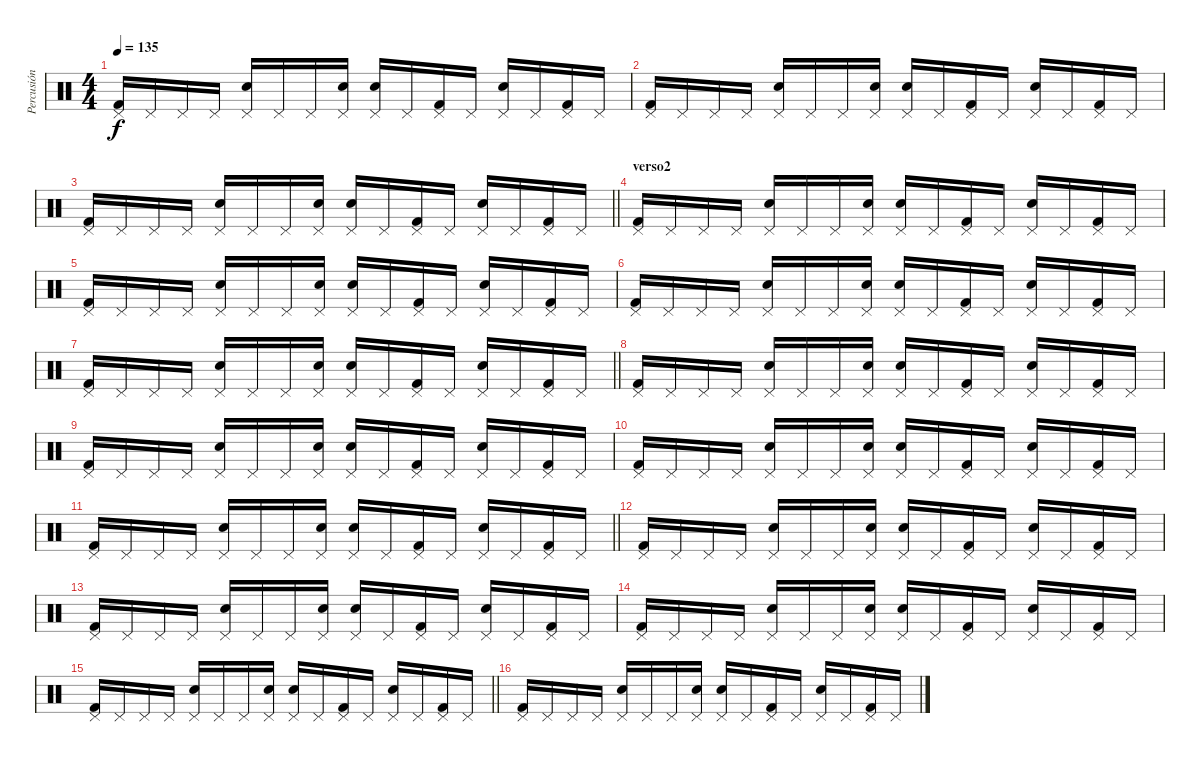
\track ("Percusión" "Percusión") {instrument percussion}
\staff {score}
\articulation defaults
\ts (4 4)
\tempo 135
\clef neutral
\ks c
("Pedal Hi-Hat (hit)" "Kick (hit) 2").16{dy f} "Pedal Hi-Hat (hit)".16 "Pedal Hi-Hat (hit)".16 "Pedal Hi-Hat (hit)".16 ("Pedal Hi-Hat (hit)" "Snare (hit) 2").16 "Pedal Hi-Hat (hit)".16 "Pedal Hi-Hat (hit)".16 ("Pedal Hi-Hat (hit)" "Snare (hit) 2").16 ("Pedal Hi-Hat (hit)" "Snare (hit) 2").16 "Pedal Hi-Hat (hit)".16 ("Pedal Hi-Hat (hit)" "Kick (hit) 2").16 "Pedal Hi-Hat (hit)".16 ("Pedal Hi-Hat (hit)" "Snare (hit) 2").16 "Pedal Hi-Hat (hit)".16 ("Pedal Hi-Hat (hit)" "Kick (hit) 2").16 "Pedal Hi-Hat (hit)".16 |
("Pedal Hi-Hat (hit)" "Kick (hit) 2").16 "Pedal Hi-Hat (hit)".16 "Pedal Hi-Hat (hit)".16 "Pedal Hi-Hat (hit)".16 ("Pedal Hi-Hat (hit)" "Snare (hit) 2").16 "Pedal Hi-Hat (hit)".16 "Pedal Hi-Hat (hit)".16 ("Pedal Hi-Hat (hit)" "Snare (hit) 2").16 ("Pedal Hi-Hat (hit)" "Snare (hit) 2").16 "Pedal Hi-Hat (hit)".16 ("Pedal Hi-Hat (hit)" "Kick (hit) 2").16 "Pedal Hi-Hat (hit)".16 ("Pedal Hi-Hat (hit)" "Snare (hit) 2").16 "Pedal Hi-Hat (hit)".16 ("Pedal Hi-Hat (hit)" "Kick (hit) 2").16 "Pedal Hi-Hat (hit)".16 |
\barLineRight lightlight
("Pedal Hi-Hat (hit)" "Kick (hit) 2").16 "Pedal Hi-Hat (hit)".16 "Pedal Hi-Hat (hit)".16 "Pedal Hi-Hat (hit)".16 ("Pedal Hi-Hat (hit)" "Snare (hit) 2").16 "Pedal Hi-Hat (hit)".16 "Pedal Hi-Hat (hit)".16 ("Pedal Hi-Hat (hit)" "Snare (hit) 2").16 ("Pedal Hi-Hat (hit)" "Snare (hit) 2").16 "Pedal Hi-Hat (hit)".16 ("Pedal Hi-Hat (hit)" "Kick (hit) 2").16 "Pedal Hi-Hat (hit)".16 ("Pedal Hi-Hat (hit)" "Snare (hit) 2").16 "Pedal Hi-Hat (hit)".16 ("Pedal Hi-Hat (hit)" "Kick (hit) 2").16 "Pedal Hi-Hat (hit)".16 |
\section ("" "verso2")
("Pedal Hi-Hat (hit)" "Kick (hit) 2").16 "Pedal Hi-Hat (hit)".16 "Pedal Hi-Hat (hit)".16 "Pedal Hi-Hat (hit)".16 ("Pedal Hi-Hat (hit)" "Snare (hit) 2").16 "Pedal Hi-Hat (hit)".16 "Pedal Hi-Hat (hit)".16 ("Pedal Hi-Hat (hit)" "Snare (hit) 2").16 ("Pedal Hi-Hat (hit)" "Snare (hit) 2").16 "Pedal Hi-Hat (hit)".16 ("Pedal Hi-Hat (hit)" "Kick (hit) 2").16 "Pedal Hi-Hat (hit)".16 ("Pedal Hi-Hat (hit)" "Snare (hit) 2").16 "Pedal Hi-Hat (hit)".16 ("Pedal Hi-Hat (hit)" "Kick (hit) 2").16 "Pedal Hi-Hat (hit)".16 |
("Pedal Hi-Hat (hit)" "Kick (hit) 2").16 "Pedal Hi-Hat (hit)".16 "Pedal Hi-Hat (hit)".16 "Pedal Hi-Hat (hit)".16 ("Pedal Hi-Hat (hit)" "Snare (hit) 2").16 "Pedal Hi-Hat (hit)".16 "Pedal Hi-Hat (hit)".16 ("Pedal Hi-Hat (hit)" "Snare (hit) 2").16 ("Pedal Hi-Hat (hit)" "Snare (hit) 2").16 "Pedal Hi-Hat (hit)".16 ("Pedal Hi-Hat (hit)" "Kick (hit) 2").16 "Pedal Hi-Hat (hit)".16 ("Pedal Hi-Hat (hit)" "Snare (hit) 2").16 "Pedal Hi-Hat (hit)".16 ("Pedal Hi-Hat (hit)" "Kick (hit) 2").16 "Pedal Hi-Hat (hit)".16 |
("Pedal Hi-Hat (hit)" "Kick (hit) 2").16 "Pedal Hi-Hat (hit)".16 "Pedal Hi-Hat (hit)".16 "Pedal Hi-Hat (hit)".16 ("Pedal Hi-Hat (hit)" "Snare (hit) 2").16 "Pedal Hi-Hat (hit)".16 "Pedal Hi-Hat (hit)".16 ("Pedal Hi-Hat (hit)" "Snare (hit) 2").16 ("Pedal Hi-Hat (hit)" "Snare (hit) 2").16 "Pedal Hi-Hat (hit)".16 ("Pedal Hi-Hat (hit)" "Kick (hit) 2").16 "Pedal Hi-Hat (hit)".16 ("Pedal Hi-Hat (hit)" "Snare (hit) 2").16 "Pedal Hi-Hat (hit)".16 ("Pedal Hi-Hat (hit)" "Kick (hit) 2").16 "Pedal Hi-Hat (hit)".16 |
\barLineRight lightlight
("Pedal Hi-Hat (hit)" "Kick (hit) 2").16 "Pedal Hi-Hat (hit)".16 "Pedal Hi-Hat (hit)".16 "Pedal Hi-Hat (hit)".16 ("Pedal Hi-Hat (hit)" "Snare (hit) 2").16 "Pedal Hi-Hat (hit)".16 "Pedal Hi-Hat (hit)".16 ("Pedal Hi-Hat (hit)" "Snare (hit) 2").16 ("Pedal Hi-Hat (hit)" "Snare (hit) 2").16 "Pedal Hi-Hat (hit)".16 ("Pedal Hi-Hat (hit)" "Kick (hit) 2").16 "Pedal Hi-Hat (hit)".16 ("Pedal Hi-Hat (hit)" "Snare (hit) 2").16 "Pedal Hi-Hat (hit)".16 ("Pedal Hi-Hat (hit)" "Kick (hit) 2").16 "Pedal Hi-Hat (hit)".16 |
("Pedal Hi-Hat (hit)" "Kick (hit) 2").16 "Pedal Hi-Hat (hit)".16 "Pedal Hi-Hat (hit)".16 "Pedal Hi-Hat (hit)".16 ("Pedal Hi-Hat (hit)" "Snare (hit) 2").16 "Pedal Hi-Hat (hit)".16 "Pedal Hi-Hat (hit)".16 ("Pedal Hi-Hat (hit)" "Snare (hit) 2").16 ("Pedal Hi-Hat (hit)" "Snare (hit) 2").16 "Pedal Hi-Hat (hit)".16 ("Pedal Hi-Hat (hit)" "Kick (hit) 2").16 "Pedal Hi-Hat (hit)".16 ("Pedal Hi-Hat (hit)" "Snare (hit) 2").16 "Pedal Hi-Hat (hit)".16 ("Pedal Hi-Hat (hit)" "Kick (hit) 2").16 "Pedal Hi-Hat (hit)".16 |
("Pedal Hi-Hat (hit)" "Kick (hit) 2").16 "Pedal Hi-Hat (hit)".16 "Pedal Hi-Hat (hit)".16 "Pedal Hi-Hat (hit)".16 ("Pedal Hi-Hat (hit)" "Snare (hit) 2").16 "Pedal Hi-Hat (hit)".16 "Pedal Hi-Hat (hit)".16 ("Pedal Hi-Hat (hit)" "Snare (hit) 2").16 ("Pedal Hi-Hat (hit)" "Snare (hit) 2").16 "Pedal Hi-Hat (hit)".16 ("Pedal Hi-Hat (hit)" "Kick (hit) 2").16 "Pedal Hi-Hat (hit)".16 ("Pedal Hi-Hat (hit)" "Snare (hit) 2").16 "Pedal Hi-Hat (hit)".16 ("Pedal Hi-Hat (hit)" "Kick (hit) 2").16 "Pedal Hi-Hat (hit)".16 |
("Pedal Hi-Hat (hit)" "Kick (hit) 2").16 "Pedal Hi-Hat (hit)".16 "Pedal Hi-Hat (hit)".16 "Pedal Hi-Hat (hit)".16 ("Pedal Hi-Hat (hit)" "Snare (hit) 2").16 "Pedal Hi-Hat (hit)".16 "Pedal Hi-Hat (hit)".16 ("Pedal Hi-Hat (hit)" "Snare (hit) 2").16 ("Pedal Hi-Hat (hit)" "Snare (hit) 2").16 "Pedal Hi-Hat (hit)".16 ("Pedal Hi-Hat (hit)" "Kick (hit) 2").16 "Pedal Hi-Hat (hit)".16 ("Pedal Hi-Hat (hit)" "Snare (hit) 2").16 "Pedal Hi-Hat (hit)".16 ("Pedal Hi-Hat (hit)" "Kick (hit) 2").16 "Pedal Hi-Hat (hit)".16 |
\barLineRight lightlight
("Pedal Hi-Hat (hit)" "Kick (hit) 2").16 "Pedal Hi-Hat (hit)".16 "Pedal Hi-Hat (hit)".16 "Pedal Hi-Hat (hit)".16 ("Pedal Hi-Hat (hit)" "Snare (hit) 2").16 "Pedal Hi-Hat (hit)".16 "Pedal Hi-Hat (hit)".16 ("Pedal Hi-Hat (hit)" "Snare (hit) 2").16 ("Pedal Hi-Hat (hit)" "Snare (hit) 2").16 "Pedal Hi-Hat (hit)".16 ("Pedal Hi-Hat (hit)" "Kick (hit) 2").16 "Pedal Hi-Hat (hit)".16 ("Pedal Hi-Hat (hit)" "Snare (hit) 2").16 "Pedal Hi-Hat (hit)".16 ("Pedal Hi-Hat (hit)" "Kick (hit) 2").16 "Pedal Hi-Hat (hit)".16 |
("Pedal Hi-Hat (hit)" "Kick (hit) 2").16 "Pedal Hi-Hat (hit)".16 "Pedal Hi-Hat (hit)".16 "Pedal Hi-Hat (hit)".16 ("Pedal Hi-Hat (hit)" "Snare (hit) 2").16 "Pedal Hi-Hat (hit)".16 "Pedal Hi-Hat (hit)".16 ("Pedal Hi-Hat (hit)" "Snare (hit) 2").16 ("Pedal Hi-Hat (hit)" "Snare (hit) 2").16 "Pedal Hi-Hat (hit)".16 ("Pedal Hi-Hat (hit)" "Kick (hit) 2").16 "Pedal Hi-Hat (hit)".16 ("Pedal Hi-Hat (hit)" "Snare (hit) 2").16 "Pedal Hi-Hat (hit)".16 ("Pedal Hi-Hat (hit)" "Kick (hit) 2").16 "Pedal Hi-Hat (hit)".16 |
("Pedal Hi-Hat (hit)" "Kick (hit) 2").16 "Pedal Hi-Hat (hit)".16 "Pedal Hi-Hat (hit)".16 "Pedal Hi-Hat (hit)".16 ("Pedal Hi-Hat (hit)" "Snare (hit) 2").16 "Pedal Hi-Hat (hit)".16 "Pedal Hi-Hat (hit)".16 ("Pedal Hi-Hat (hit)" "Snare (hit) 2").16 ("Pedal Hi-Hat (hit)" "Snare (hit) 2").16 "Pedal Hi-Hat (hit)".16 ("Pedal Hi-Hat (hit)" "Kick (hit) 2").16 "Pedal Hi-Hat (hit)".16 ("Pedal Hi-Hat (hit)" "Snare (hit) 2").16 "Pedal Hi-Hat (hit)".16 ("Pedal Hi-Hat (hit)" "Kick (hit) 2").16 "Pedal Hi-Hat (hit)".16 |
("Pedal Hi-Hat (hit)" "Kick (hit) 2").16 "Pedal Hi-Hat (hit)".16 "Pedal Hi-Hat (hit)".16 "Pedal Hi-Hat (hit)".16 ("Pedal Hi-Hat (hit)" "Snare (hit) 2").16 "Pedal Hi-Hat (hit)".16 "Pedal Hi-Hat (hit)".16 ("Pedal Hi-Hat (hit)" "Snare (hit) 2").16 ("Pedal Hi-Hat (hit)" "Snare (hit) 2").16 "Pedal Hi-Hat (hit)".16 ("Pedal Hi-Hat (hit)" "Kick (hit) 2").16 "Pedal Hi-Hat (hit)".16 ("Pedal Hi-Hat (hit)" "Snare (hit) 2").16 "Pedal Hi-Hat (hit)".16 ("Pedal Hi-Hat (hit)" "Kick (hit) 2").16 "Pedal Hi-Hat (hit)".16 |
\barLineRight lightlight
("Pedal Hi-Hat (hit)" "Kick (hit) 2").16 "Pedal Hi-Hat (hit)".16 "Pedal Hi-Hat (hit)".16 "Pedal Hi-Hat (hit)".16 ("Pedal Hi-Hat (hit)" "Snare (hit) 2").16 "Pedal Hi-Hat (hit)".16 "Pedal Hi-Hat (hit)".16 ("Pedal Hi-Hat (hit)" "Snare (hit) 2").16 ("Pedal Hi-Hat (hit)" "Snare (hit) 2").16 "Pedal Hi-Hat (hit)".16 ("Pedal Hi-Hat (hit)" "Kick (hit) 2").16 "Pedal Hi-Hat (hit)".16 ("Pedal Hi-Hat (hit)" "Snare (hit) 2").16 "Pedal Hi-Hat (hit)".16 ("Pedal Hi-Hat (hit)" "Kick (hit) 2").16 "Pedal Hi-Hat (hit)".16 |
("Pedal Hi-Hat (hit)" "Kick (hit) 2").16 "Pedal Hi-Hat (hit)".16 "Pedal Hi-Hat (hit)".16 "Pedal Hi-Hat (hit)".16 ("Pedal Hi-Hat (hit)" "Snare (hit) 2").16 "Pedal Hi-Hat (hit)".16 "Pedal Hi-Hat (hit)".16 ("Pedal Hi-Hat (hit)" "Snare (hit) 2").16 ("Pedal Hi-Hat (hit)" "Snare (hit) 2").16 "Pedal Hi-Hat (hit)".16 ("Pedal Hi-Hat (hit)" "Kick (hit) 2").16 "Pedal Hi-Hat (hit)".16 ("Pedal Hi-Hat (hit)" "Snare (hit) 2").16 "Pedal Hi-Hat (hit)".16 ("Pedal Hi-Hat (hit)" "Kick (hit) 2").16 "Pedal Hi-Hat (hit)".16
